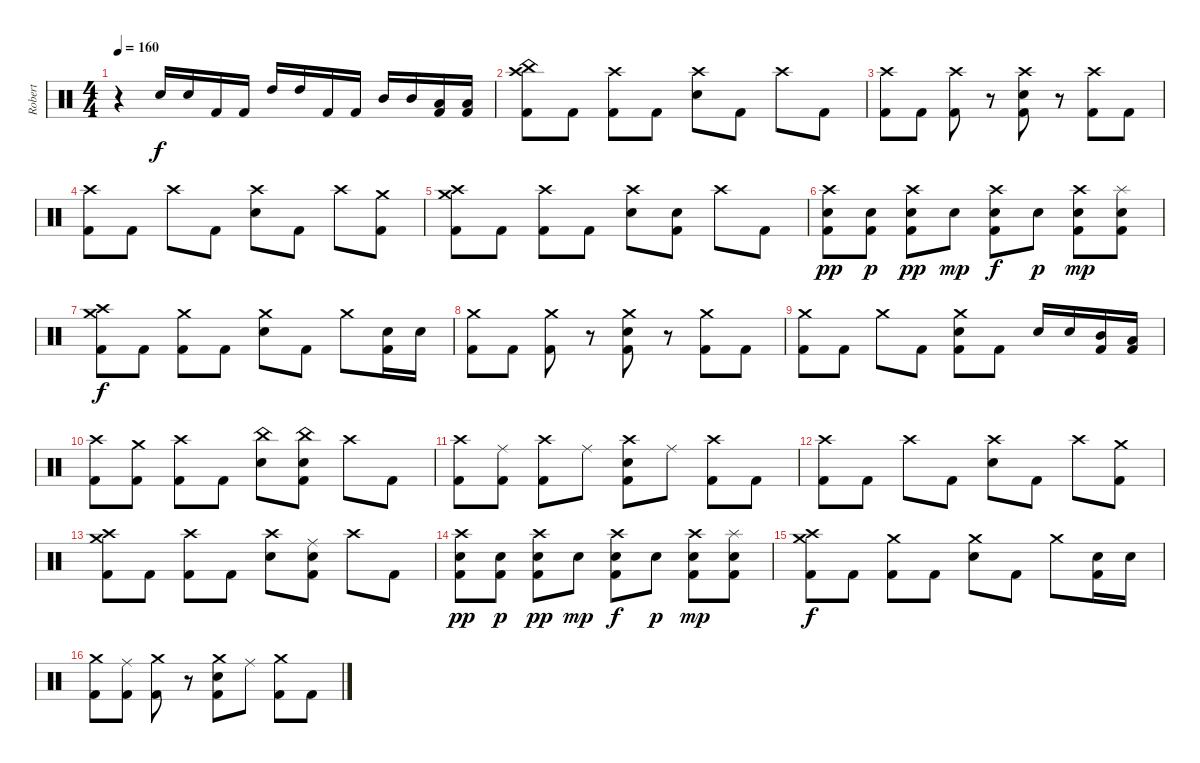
\track ("Robert" "Robert") {instrument percussion}
\staff {score}
\articulation defaults
\ts (4 4)
\tempo 160
\clef neutral
\ks c
r.4{dy f} "Electric Snare (hit)".16 "Electric Snare (hit)".16 "Kick (hit) 2".16 "Kick (hit) 2".16 "High Tom (hit)".16 "High Tom (hit)".16 "Kick (hit) 2".16 "Kick (hit) 2".16 "Mid Tom (hit)".16 "Mid Tom (hit)".16 ("Kick (hit) 2" "Low Tom (hit)").16 ("Kick (hit) 2" "Low Floor Tom (hit)").16 |
("China (hit)" "Crash high (hit)" "Kick (hit) 2").8 "Kick (hit) 2".8 ("Crash high (hit)" "Kick (hit) 2").8 "Kick (hit) 2".8 ("Crash high (hit)" "Electric Snare (hit)").8 "Kick (hit) 2".8 "Crash high (hit)".8 "Kick (hit) 2".8 |
("Crash high (hit)" "Kick (hit) 2").8 "Kick (hit) 2".8 ("Crash high (hit)" "Kick (hit) 2").8 r.8 ("Crash high (hit)" "Electric Snare (hit)" "Kick (hit) 2").8 r.8 ("Crash high (hit)" "Kick (hit) 2").8 "Kick (hit) 2".8 |
("Crash high (hit)" "Kick (hit) 2").8 "Kick (hit) 2".8 "Crash high (hit)".8 "Kick (hit) 2".8 ("Electric Snare (hit)" "Crash high (hit)").8 "Kick (hit) 2".8 "Crash high (hit)".8 ("Crash medium (hit)" "Kick (hit) 2").8 |
("Kick (hit) 2" "Crash high (hit)" "Crash medium (hit)").8 "Kick (hit) 2".8 ("Crash high (hit)" "Kick (hit) 2").8 "Kick (hit) 2".8 ("Crash high (hit)" "Electric Snare (hit)").8 ("Kick (hit) 2" "Electric Snare (hit)").8 "Crash high (hit)".8 "Kick (hit) 2".8 |
("Crash high (hit)" "Kick (hit) 2" "Electric Snare (hit)").8{dy pp} ("Kick (hit) 2" "Electric Snare (hit)").8{dy p} ("Crash high (hit)" "Kick (hit) 2" "Electric Snare (hit)").8{dy pp} "Electric Snare (hit)".8{dy mp} ("Crash high (hit)" "Electric Snare (hit)" "Kick (hit) 2").8{dy f} "Electric Snare (hit)".8{dy p} ("Crash high (hit)" "Kick (hit) 2" "Electric Snare (hit)").8{dy mp} ("Kick (hit) 2" "Electric Snare (hit)" "Splash (hit)").8 |
("Kick (hit) 2" "Crash high (hit)" "Crash medium (hit)").8{dy f} "Kick (hit) 2".8 ("Kick (hit) 2" "Crash medium (hit)").8 "Kick (hit) 2".8 ("Electric Snare (hit)" "Crash medium (hit)").8 "Kick (hit) 2".8 "Crash medium (hit)".8 ("Electric Snare (hit)" "Kick (hit) 2").16 "Electric Snare (hit)".16 |
("Crash medium (hit)" "Kick (hit) 2").8 "Kick (hit) 2".8 ("Crash medium (hit)" "Kick (hit) 2").8 r.8 ("Crash medium (hit)" "Electric Snare (hit)" "Kick (hit) 2").8 r.8 ("Crash medium (hit)" "Kick (hit) 2").8 "Kick (hit) 2".8 |
("Kick (hit) 2" "Crash medium (hit)").8 "Kick (hit) 2".8 "Crash medium (hit)".8 "Kick (hit) 2".8 ("Kick (hit) 2" "Electric Snare (hit)" "Crash medium (hit)").8 "Kick (hit) 2".8 "Electric Snare (hit)".16 "Electric Snare (hit)".16 ("Mid Tom (hit)" "Kick (hit) 2").16 ("Low Tom (hit)" "Kick (hit) 2").16 |
("Crash high (hit)" "Kick (hit) 2").8 ("Crash medium (hit)" "Kick (hit) 2").8 ("Crash high (hit)" "Kick (hit) 2").8 "Kick (hit) 2".8 ("China (hit)" "Electric Snare (hit)").8 ("China (hit)" "Electric Snare (hit)" "Kick (hit) 2").8 "Crash high (hit)".8 "Kick (hit) 2".8 |
("Crash high (hit)" "Kick (hit) 2").8 ("Ride (middle)" "Kick (hit) 2").8 ("Crash high (hit)" "Kick (hit) 2").8 "Ride (middle)".8 ("Crash high (hit)" "Electric Snare (hit)" "Kick (hit) 2").8 "Ride (middle)".8 ("Crash high (hit)" "Kick (hit) 2").8 "Kick (hit) 2".8 |
("Crash high (hit)" "Kick (hit) 2").8 "Kick (hit) 2".8 "Crash high (hit)".8 "Kick (hit) 2".8 ("Electric Snare (hit)" "Crash high (hit)").8 "Kick (hit) 2".8 "Crash high (hit)".8 ("Crash medium (hit)" "Kick (hit) 2").8 |
("Kick (hit) 2" "Crash high (hit)" "Crash medium (hit)").8 "Kick (hit) 2".8 ("Crash high (hit)" "Kick (hit) 2").8 "Kick (hit) 2".8 ("Crash high (hit)" "Electric Snare (hit)").8 ("Kick (hit) 2" "Ride (middle)" "Electric Snare (hit)").8 "Crash high (hit)".8 "Kick (hit) 2".8 |
("Crash high (hit)" "Kick (hit) 2" "Electric Snare (hit)").8{dy pp} ("Kick (hit) 2" "Electric Snare (hit)").8{dy p} ("Crash high (hit)" "Kick (hit) 2" "Electric Snare (hit)").8{dy pp} "Electric Snare (hit)".8{dy mp} ("Crash high (hit)" "Electric Snare (hit)" "Kick (hit) 2").8{dy f} "Electric Snare (hit)".8{dy p} ("Crash high (hit)" "Kick (hit) 2" "Electric Snare (hit)").8{dy mp} ("Kick (hit) 2" "Electric Snare (hit)" "Splash (hit)").8 |
("Kick (hit) 2" "Crash high (hit)" "Crash medium (hit)").8{dy f} "Kick (hit) 2".8 ("Kick (hit) 2" "Crash medium (hit)").8 "Kick (hit) 2".8 ("Electric Snare (hit)" "Crash medium (hit)").8 "Kick (hit) 2".8 "Crash medium (hit)".8 ("Electric Snare (hit)" "Kick (hit) 2").16 "Electric Snare (hit)".16 |
("Crash medium (hit)" "Kick (hit) 2").8 ("Kick (hit) 2" "Ride (middle)").8 ("Crash medium (hit)" "Kick (hit) 2").8 r.8 ("Crash medium (hit)" "Electric Snare (hit)" "Kick (hit) 2").8 "Ride (middle)".8 ("Crash medium (hit)" "Kick (hit) 2").8 "Kick (hit) 2".8
